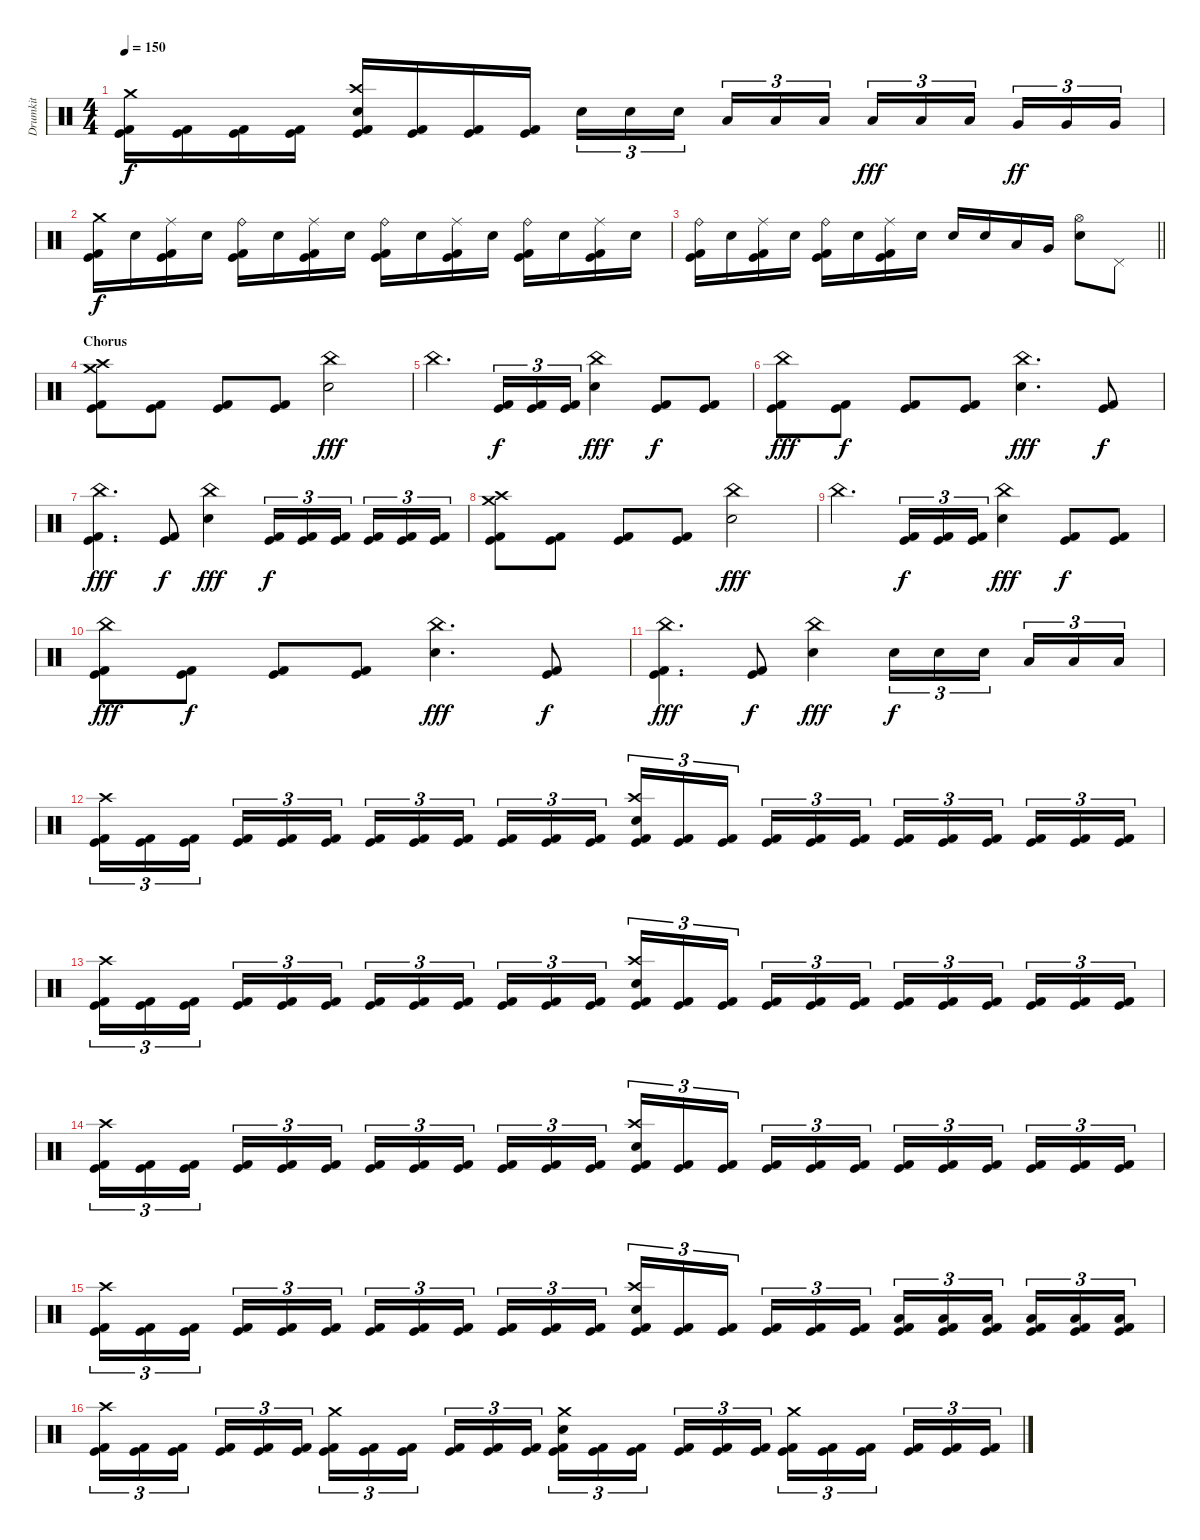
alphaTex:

\track ("Drumkit" "Drumkit") {instrument percussion}
\staff {score}
\articulation defaults
\ts (4 4)
\tempo 150
\clef neutral
\ks c
("Crash medium (hit)" "Kick (hit)" "Kick (hit) 2").16{dy f} ("Kick (hit)" "Kick (hit) 2").16 ("Kick (hit)" "Kick (hit) 2").16 ("Kick (hit)" "Kick (hit) 2").16 ("Crash high (hit)" "Electric Snare (hit)" "Kick (hit)" "Kick (hit) 2").16 ("Kick (hit)" "Kick (hit) 2").16 ("Kick (hit)" "Kick (hit) 2").16 ("Kick (hit)" "Kick (hit) 2").16 "Electric Snare (hit)".16{tu (3 2)} "Electric Snare (hit)".16{tu (3 2)} "Electric Snare (hit)".16{tu (3 2) beam splitsecondary} "Low Tom (hit)".16{tu (3 2)} "Low Tom (hit)".16{tu (3 2)} "Low Tom (hit)".16{tu (3 2)} "Low Floor Tom (hit)".16{tu (3 2) dy fff} "Low Floor Tom (hit)".16{tu (3 2)} "Low Floor Tom (hit)".16{tu (3 2) beam splitsecondary} "Very Low Tom (hit)".16{tu (3 2) dy ff} "Very Low Tom (hit)".16{tu (3 2)} "Very Low Tom (hit)".16{tu (3 2)} |
("Crash medium (hit)" "Kick (hit)" "Kick (hit) 2").16{dy f} "Electric Snare (hit)".16 ("Ride (middle)" "Kick (hit)" "Kick (hit) 2").16 "Electric Snare (hit)".16 ("Ride (bell)" "Kick (hit)" "Kick (hit) 2").16 "Electric Snare (hit)".16 ("Ride (middle)" "Kick (hit)" "Kick (hit) 2").16 "Electric Snare (hit)".16 ("Ride (bell)" "Kick (hit)" "Kick (hit) 2").16 "Electric Snare (hit)".16 ("Ride (middle)" "Kick (hit)" "Kick (hit) 2").16 "Electric Snare (hit)".16 ("Ride (bell)" "Kick (hit)" "Kick (hit) 2").16 "Electric Snare (hit)".16 ("Ride (middle)" "Kick (hit)" "Kick (hit) 2").16 "Electric Snare (hit)".16 |
\barLineRight lightlight
("Ride (bell)" "Kick (hit)" "Kick (hit) 2").16 "Electric Snare (hit)".16 ("Ride (middle)" "Kick (hit)" "Kick (hit) 2").16 "Electric Snare (hit)".16 ("Ride (bell)" "Kick (hit)" "Kick (hit) 2").16 "Electric Snare (hit)".16 ("Ride (middle)" "Kick (hit)" "Kick (hit) 2").16 "Electric Snare (hit)".16 "Electric Snare (hit)".16 "Electric Snare (hit)".16 "Low Tom (hit)".16 "Very Low Tom (hit)".16 ("Hi-Hat (open)" "Electric Snare (hit)").8 "Pedal Hi-Hat (hit)".8 |
\section ("" "Chorus")
("Crash high (hit)" "Crash medium (hit)" "Kick (hit)" "Kick (hit) 2").8 ("Kick (hit)" "Kick (hit) 2").8 ("Kick (hit)" "Kick (hit) 2").8 ("Kick (hit)" "Kick (hit) 2").8 ("China (hit)" "Electric Snare (hit)").2{dy fff} |
"China (hit)".4{d} ("Kick (hit)" "Kick (hit) 2").16{tu (3 2) dy f} ("Kick (hit)" "Kick (hit) 2").16{tu (3 2)} ("Kick (hit)" "Kick (hit) 2").16{tu (3 2)} ("China (hit)" "Electric Snare (hit)").4{dy fff} ("Kick (hit)" "Kick (hit) 2").8{dy f} ("Kick (hit)" "Kick (hit) 2").8 |
("China (hit)" "Kick (hit)" "Kick (hit) 2").8{dy fff} ("Kick (hit)" "Kick (hit) 2").8{dy f} ("Kick (hit)" "Kick (hit) 2").8 ("Kick (hit)" "Kick (hit) 2").8 ("China (hit)" "Electric Snare (hit)").4{d dy fff} ("Kick (hit)" "Kick (hit) 2").8{dy f} |
("China (hit)" "Kick (hit)" "Kick (hit) 2").4{d dy fff} ("Kick (hit)" "Kick (hit) 2").8{dy f} ("China (hit)" "Electric Snare (hit)").4{dy fff} ("Kick (hit)" "Kick (hit) 2").16{tu (3 2) dy f} ("Kick (hit)" "Kick (hit) 2").16{tu (3 2)} ("Kick (hit)" "Kick (hit) 2").16{tu (3 2) beam splitsecondary} ("Kick (hit)" "Kick (hit) 2").16{tu (3 2)} ("Kick (hit)" "Kick (hit) 2").16{tu (3 2)} ("Kick (hit)" "Kick (hit) 2").16{tu (3 2)} |
("Crash high (hit)" "Crash medium (hit)" "Kick (hit)" "Kick (hit) 2").8 ("Kick (hit)" "Kick (hit) 2").8 ("Kick (hit)" "Kick (hit) 2").8 ("Kick (hit)" "Kick (hit) 2").8 ("China (hit)" "Electric Snare (hit)").2{dy fff} |
"China (hit)".4{d} ("Kick (hit)" "Kick (hit) 2").16{tu (3 2) dy f} ("Kick (hit)" "Kick (hit) 2").16{tu (3 2)} ("Kick (hit)" "Kick (hit) 2").16{tu (3 2)} ("China (hit)" "Electric Snare (hit)").4{dy fff} ("Kick (hit)" "Kick (hit) 2").8{dy f} ("Kick (hit)" "Kick (hit) 2").8 |
("China (hit)" "Kick (hit)" "Kick (hit) 2").8{dy fff} ("Kick (hit)" "Kick (hit) 2").8{dy f} ("Kick (hit)" "Kick (hit) 2").8 ("Kick (hit)" "Kick (hit) 2").8 ("China (hit)" "Electric Snare (hit)").4{d dy fff} ("Kick (hit)" "Kick (hit) 2").8{dy f} |
("China (hit)" "Kick (hit)" "Kick (hit) 2").4{d dy fff} ("Kick (hit)" "Kick (hit) 2").8{dy f} ("China (hit)" "Electric Snare (hit)").4{dy fff} "Electric Snare (hit)".16{tu (3 2) dy f} "Electric Snare (hit)".16{tu (3 2)} "Electric Snare (hit)".16{tu (3 2) beam splitsecondary} "Low Tom (hit)".16{tu (3 2)} "Low Tom (hit)".16{tu (3 2)} "Low Tom (hit)".16{tu (3 2)} |
("Crash high (hit)" "Kick (hit)" "Kick (hit) 2").16{tu (3 2)} ("Kick (hit)" "Kick (hit) 2").16{tu (3 2)} ("Kick (hit)" "Kick (hit) 2").16{tu (3 2) beam splitsecondary} ("Kick (hit)" "Kick (hit) 2").16{tu (3 2)} ("Kick (hit)" "Kick (hit) 2").16{tu (3 2)} ("Kick (hit)" "Kick (hit) 2").16{tu (3 2)} ("Kick (hit)" "Kick (hit) 2").16{tu (3 2)} ("Kick (hit)" "Kick (hit) 2").16{tu (3 2)} ("Kick (hit)" "Kick (hit) 2").16{tu (3 2) beam splitsecondary} ("Kick (hit)" "Kick (hit) 2").16{tu (3 2)} ("Kick (hit)" "Kick (hit) 2").16{tu (3 2)} ("Kick (hit)" "Kick (hit) 2").16{tu (3 2)} ("Crash high (hit)" "Electric Snare (hit)" "Kick (hit)" "Kick (hit) 2").16{tu (3 2)} ("Kick (hit)" "Kick (hit) 2").16{tu (3 2)} ("Kick (hit)" "Kick (hit) 2").16{tu (3 2) beam splitsecondary} ("Kick (hit)" "Kick (hit) 2").16{tu (3 2)} ("Kick (hit)" "Kick (hit) 2").16{tu (3 2)} ("Kick (hit)" "Kick (hit) 2").16{tu (3 2)} ("Kick (hit)" "Kick (hit) 2").16{tu (3 2)} ("Kick (hit)" "Kick (hit) 2").16{tu (3 2)} ("Kick (hit)" "Kick (hit) 2").16{tu (3 2) beam splitsecondary} ("Kick (hit)" "Kick (hit) 2").16{tu (3 2)} ("Kick (hit)" "Kick (hit) 2").16{tu (3 2)} ("Kick (hit)" "Kick (hit) 2").16{tu (3 2)} |
("Crash high (hit)" "Kick (hit)" "Kick (hit) 2").16{tu (3 2)} ("Kick (hit)" "Kick (hit) 2").16{tu (3 2)} ("Kick (hit)" "Kick (hit) 2").16{tu (3 2) beam splitsecondary} ("Kick (hit)" "Kick (hit) 2").16{tu (3 2)} ("Kick (hit)" "Kick (hit) 2").16{tu (3 2)} ("Kick (hit)" "Kick (hit) 2").16{tu (3 2)} ("Kick (hit)" "Kick (hit) 2").16{tu (3 2)} ("Kick (hit)" "Kick (hit) 2").16{tu (3 2)} ("Kick (hit)" "Kick (hit) 2").16{tu (3 2) beam splitsecondary} ("Kick (hit)" "Kick (hit) 2").16{tu (3 2)} ("Kick (hit)" "Kick (hit) 2").16{tu (3 2)} ("Kick (hit)" "Kick (hit) 2").16{tu (3 2)} ("Crash high (hit)" "Electric Snare (hit)" "Kick (hit)" "Kick (hit) 2").16{tu (3 2)} ("Kick (hit)" "Kick (hit) 2").16{tu (3 2)} ("Kick (hit)" "Kick (hit) 2").16{tu (3 2) beam splitsecondary} ("Kick (hit)" "Kick (hit) 2").16{tu (3 2)} ("Kick (hit)" "Kick (hit) 2").16{tu (3 2)} ("Kick (hit)" "Kick (hit) 2").16{tu (3 2)} ("Kick (hit)" "Kick (hit) 2").16{tu (3 2)} ("Kick (hit)" "Kick (hit) 2").16{tu (3 2)} ("Kick (hit)" "Kick (hit) 2").16{tu (3 2) beam splitsecondary} ("Kick (hit)" "Kick (hit) 2").16{tu (3 2)} ("Kick (hit)" "Kick (hit) 2").16{tu (3 2)} ("Kick (hit)" "Kick (hit) 2").16{tu (3 2)} |
("Crash high (hit)" "Kick (hit)" "Kick (hit) 2").16{tu (3 2)} ("Kick (hit)" "Kick (hit) 2").16{tu (3 2)} ("Kick (hit)" "Kick (hit) 2").16{tu (3 2) beam splitsecondary} ("Kick (hit)" "Kick (hit) 2").16{tu (3 2)} ("Kick (hit)" "Kick (hit) 2").16{tu (3 2)} ("Kick (hit)" "Kick (hit) 2").16{tu (3 2)} ("Kick (hit)" "Kick (hit) 2").16{tu (3 2)} ("Kick (hit)" "Kick (hit) 2").16{tu (3 2)} ("Kick (hit)" "Kick (hit) 2").16{tu (3 2) beam splitsecondary} ("Kick (hit)" "Kick (hit) 2").16{tu (3 2)} ("Kick (hit)" "Kick (hit) 2").16{tu (3 2)} ("Kick (hit)" "Kick (hit) 2").16{tu (3 2)} ("Crash high (hit)" "Electric Snare (hit)" "Kick (hit)" "Kick (hit) 2").16{tu (3 2)} ("Kick (hit)" "Kick (hit) 2").16{tu (3 2)} ("Kick (hit)" "Kick (hit) 2").16{tu (3 2) beam splitsecondary} ("Kick (hit)" "Kick (hit) 2").16{tu (3 2)} ("Kick (hit)" "Kick (hit) 2").16{tu (3 2)} ("Kick (hit)" "Kick (hit) 2").16{tu (3 2)} ("Kick (hit)" "Kick (hit) 2").16{tu (3 2)} ("Kick (hit)" "Kick (hit) 2").16{tu (3 2)} ("Kick (hit)" "Kick (hit) 2").16{tu (3 2) beam splitsecondary} ("Kick (hit)" "Kick (hit) 2").16{tu (3 2)} ("Kick (hit)" "Kick (hit) 2").16{tu (3 2)} ("Kick (hit)" "Kick (hit) 2").16{tu (3 2)} |
("Crash high (hit)" "Kick (hit)" "Kick (hit) 2").16{tu (3 2)} ("Kick (hit)" "Kick (hit) 2").16{tu (3 2)} ("Kick (hit)" "Kick (hit) 2").16{tu (3 2) beam splitsecondary} ("Kick (hit)" "Kick (hit) 2").16{tu (3 2)} ("Kick (hit)" "Kick (hit) 2").16{tu (3 2)} ("Kick (hit)" "Kick (hit) 2").16{tu (3 2)} ("Kick (hit)" "Kick (hit) 2").16{tu (3 2)} ("Kick (hit)" "Kick (hit) 2").16{tu (3 2)} ("Kick (hit)" "Kick (hit) 2").16{tu (3 2) beam splitsecondary} ("Kick (hit)" "Kick (hit) 2").16{tu (3 2)} ("Kick (hit)" "Kick (hit) 2").16{tu (3 2)} ("Kick (hit)" "Kick (hit) 2").16{tu (3 2)} ("Crash high (hit)" "Electric Snare (hit)" "Kick (hit)" "Kick (hit) 2").16{tu (3 2)} ("Kick (hit)" "Kick (hit) 2").16{tu (3 2)} ("Kick (hit)" "Kick (hit) 2").16{tu (3 2) beam splitsecondary} ("Kick (hit)" "Kick (hit) 2").16{tu (3 2)} ("Kick (hit)" "Kick (hit) 2").16{tu (3 2)} ("Kick (hit)" "Kick (hit) 2").16{tu (3 2)} ("Low Tom (hit)" "Kick (hit)" "Kick (hit) 2").16{tu (3 2)} ("Low Tom (hit)" "Kick (hit)" "Kick (hit) 2").16{tu (3 2)} ("Low Tom (hit)" "Kick (hit)" "Kick (hit) 2").16{tu (3 2) beam splitsecondary} ("Low Tom (hit)" "Kick (hit)" "Kick (hit) 2").16{tu (3 2)} ("Low Tom (hit)" "Kick (hit)" "Kick (hit) 2").16{tu (3 2)} ("Low Tom (hit)" "Kick (hit)" "Kick (hit) 2").16{tu (3 2)} |
("Crash high (hit)" "Kick (hit)" "Kick (hit) 2").16{tu (3 2)} ("Kick (hit)" "Kick (hit) 2").16{tu (3 2)} ("Kick (hit)" "Kick (hit) 2").16{tu (3 2) beam splitsecondary} ("Kick (hit)" "Kick (hit) 2").16{tu (3 2)} ("Kick (hit)" "Kick (hit) 2").16{tu (3 2)} ("Kick (hit)" "Kick (hit) 2").16{tu (3 2)} ("Crash medium (hit)" "Kick (hit)" "Kick (hit) 2").16{tu (3 2)} ("Kick (hit)" "Kick (hit) 2").16{tu (3 2)} ("Kick (hit)" "Kick (hit) 2").16{tu (3 2) beam splitsecondary} ("Kick (hit)" "Kick (hit) 2").16{tu (3 2)} ("Kick (hit)" "Kick (hit) 2").16{tu (3 2)} ("Kick (hit)" "Kick (hit) 2").16{tu (3 2)} ("Crash medium (hit)" "Electric Snare (hit)" "Kick (hit)" "Kick (hit) 2").16{tu (3 2)} ("Kick (hit)" "Kick (hit) 2").16{tu (3 2)} ("Kick (hit)" "Kick (hit) 2").16{tu (3 2) beam splitsecondary} ("Kick (hit)" "Kick (hit) 2").16{tu (3 2)} ("Kick (hit)" "Kick (hit) 2").16{tu (3 2)} ("Kick (hit)" "Kick (hit) 2").16{tu (3 2)} ("Crash medium (hit)" "Kick (hit)" "Kick (hit) 2").16{tu (3 2)} ("Kick (hit)" "Kick (hit) 2").16{tu (3 2)} ("Kick (hit)" "Kick (hit) 2").16{tu (3 2) beam splitsecondary} ("Kick (hit)" "Kick (hit) 2").16{tu (3 2)} ("Kick (hit)" "Kick (hit) 2").16{tu (3 2)} ("Kick (hit)" "Kick (hit) 2").16{tu (3 2)}
